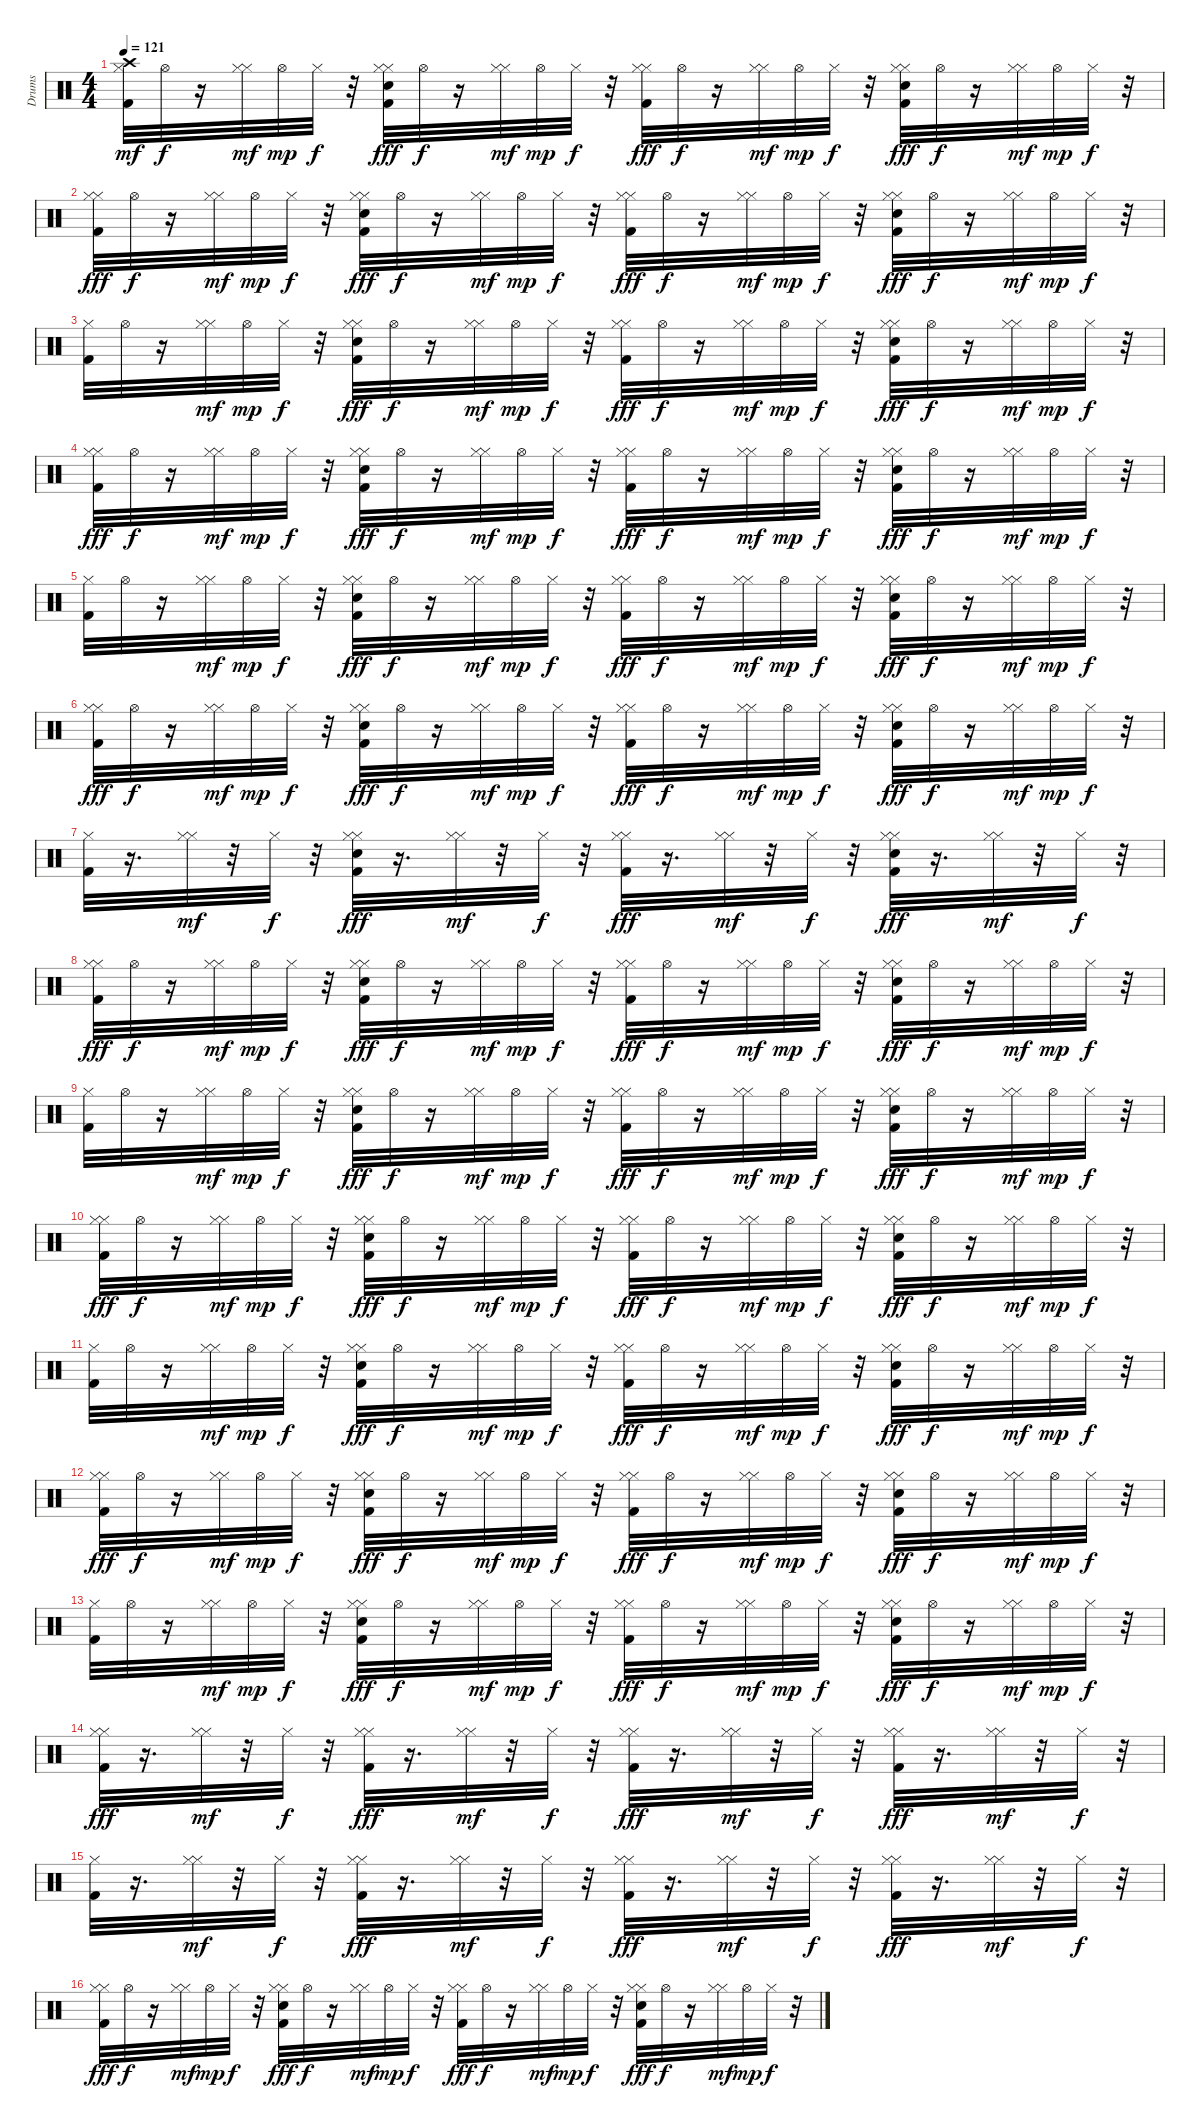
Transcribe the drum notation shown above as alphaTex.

\track ("Drums" "Drums") {instrument percussion}
\staff {score}
\articulation defaults
\ts (4 4)
\tempo 121
\clef neutral
\ks c
("Kick (hit) 2" "Hi-Hat (closed)" "Crash high (hit)").32{dy mf} "Hi-Hat (open)".32{dy f} r.16 ("Hi-Hat (closed)" "Hi-Hat (closed)").32{dy mf} "Hi-Hat (open)".32{dy mp} "Hi-Hat (closed)".32{dy f} r.32 ("Kick (hit) 2" "Hi-Hat (closed)" "Snare (hit) 2" "Hi-Hat (closed)").32{dy fff} "Hi-Hat (open)".32{dy f} r.16 ("Hi-Hat (closed)" "Hi-Hat (closed)").32{dy mf} "Hi-Hat (open)".32{dy mp} "Hi-Hat (closed)".32{dy f} r.32 ("Hi-Hat (closed)" "Kick (hit) 2" "Hi-Hat (closed)").32{dy fff} "Hi-Hat (open)".32{dy f} r.16 ("Hi-Hat (closed)" "Hi-Hat (closed)").32{dy mf} "Hi-Hat (open)".32{dy mp} "Hi-Hat (closed)".32{dy f} r.32 ("Kick (hit) 2" "Hi-Hat (closed)" "Snare (hit) 2" "Hi-Hat (closed)").32{dy fff} "Hi-Hat (open)".32{dy f} r.16 ("Hi-Hat (closed)" "Hi-Hat (closed)").32{dy mf} "Hi-Hat (open)".32{dy mp} "Hi-Hat (closed)".32{dy f} r.32 |
("Hi-Hat (closed)" "Kick (hit) 2" "Hi-Hat (closed)").32{dy fff} "Hi-Hat (open)".32{dy f} r.16 ("Hi-Hat (closed)" "Hi-Hat (closed)").32{dy mf} "Hi-Hat (open)".32{dy mp} "Hi-Hat (closed)".32{dy f} r.32 ("Kick (hit) 2" "Hi-Hat (closed)" "Snare (hit) 2" "Hi-Hat (closed)").32{dy fff} "Hi-Hat (open)".32{dy f} r.16 ("Hi-Hat (closed)" "Hi-Hat (closed)").32{dy mf} "Hi-Hat (open)".32{dy mp} "Hi-Hat (closed)".32{dy f} r.32 ("Hi-Hat (closed)" "Kick (hit) 2" "Hi-Hat (closed)").32{dy fff} "Hi-Hat (open)".32{dy f} r.16 ("Hi-Hat (closed)" "Hi-Hat (closed)").32{dy mf} "Hi-Hat (open)".32{dy mp} "Hi-Hat (closed)".32{dy f} r.32 ("Kick (hit) 2" "Hi-Hat (closed)" "Snare (hit) 2" "Hi-Hat (closed)").32{dy fff} "Hi-Hat (open)".32{dy f} r.16 ("Hi-Hat (closed)" "Hi-Hat (closed)").32{dy mf} "Hi-Hat (open)".32{dy mp} "Hi-Hat (closed)".32{dy f} r.32 |
("Kick (hit) 2" "Hi-Hat (closed)").32 "Hi-Hat (open)".32 r.16 ("Hi-Hat (closed)" "Hi-Hat (closed)").32{dy mf} "Hi-Hat (open)".32{dy mp} "Hi-Hat (closed)".32{dy f} r.32 ("Kick (hit) 2" "Hi-Hat (closed)" "Snare (hit) 2" "Hi-Hat (closed)").32{dy fff} "Hi-Hat (open)".32{dy f} r.16 ("Hi-Hat (closed)" "Hi-Hat (closed)").32{dy mf} "Hi-Hat (open)".32{dy mp} "Hi-Hat (closed)".32{dy f} r.32 ("Hi-Hat (closed)" "Kick (hit) 2" "Hi-Hat (closed)").32{dy fff} "Hi-Hat (open)".32{dy f} r.16 ("Hi-Hat (closed)" "Hi-Hat (closed)").32{dy mf} "Hi-Hat (open)".32{dy mp} "Hi-Hat (closed)".32{dy f} r.32 ("Kick (hit) 2" "Hi-Hat (closed)" "Snare (hit) 2" "Hi-Hat (closed)").32{dy fff} "Hi-Hat (open)".32{dy f} r.16 ("Hi-Hat (closed)" "Hi-Hat (closed)").32{dy mf} "Hi-Hat (open)".32{dy mp} "Hi-Hat (closed)".32{dy f} r.32 |
("Hi-Hat (closed)" "Kick (hit) 2" "Hi-Hat (closed)").32{dy fff} "Hi-Hat (open)".32{dy f} r.16 ("Hi-Hat (closed)" "Hi-Hat (closed)").32{dy mf} "Hi-Hat (open)".32{dy mp} "Hi-Hat (closed)".32{dy f} r.32 ("Kick (hit) 2" "Hi-Hat (closed)" "Snare (hit) 2" "Hi-Hat (closed)").32{dy fff} "Hi-Hat (open)".32{dy f} r.16 ("Hi-Hat (closed)" "Hi-Hat (closed)").32{dy mf} "Hi-Hat (open)".32{dy mp} "Hi-Hat (closed)".32{dy f} r.32 ("Hi-Hat (closed)" "Kick (hit) 2" "Hi-Hat (closed)").32{dy fff} "Hi-Hat (open)".32{dy f} r.16 ("Hi-Hat (closed)" "Hi-Hat (closed)").32{dy mf} "Hi-Hat (open)".32{dy mp} "Hi-Hat (closed)".32{dy f} r.32 ("Kick (hit) 2" "Hi-Hat (closed)" "Snare (hit) 2" "Hi-Hat (closed)").32{dy fff} "Hi-Hat (open)".32{dy f} r.16 ("Hi-Hat (closed)" "Hi-Hat (closed)").32{dy mf} "Hi-Hat (open)".32{dy mp} "Hi-Hat (closed)".32{dy f} r.32 |
("Kick (hit) 2" "Hi-Hat (closed)").32 "Hi-Hat (open)".32 r.16 ("Hi-Hat (closed)" "Hi-Hat (closed)").32{dy mf} "Hi-Hat (open)".32{dy mp} "Hi-Hat (closed)".32{dy f} r.32 ("Kick (hit) 2" "Hi-Hat (closed)" "Snare (hit) 2" "Hi-Hat (closed)").32{dy fff} "Hi-Hat (open)".32{dy f} r.16 ("Hi-Hat (closed)" "Hi-Hat (closed)").32{dy mf} "Hi-Hat (open)".32{dy mp} "Hi-Hat (closed)".32{dy f} r.32 ("Hi-Hat (closed)" "Kick (hit) 2" "Hi-Hat (closed)").32{dy fff} "Hi-Hat (open)".32{dy f} r.16 ("Hi-Hat (closed)" "Hi-Hat (closed)").32{dy mf} "Hi-Hat (open)".32{dy mp} "Hi-Hat (closed)".32{dy f} r.32 ("Kick (hit) 2" "Hi-Hat (closed)" "Snare (hit) 2" "Hi-Hat (closed)").32{dy fff} "Hi-Hat (open)".32{dy f} r.16 ("Hi-Hat (closed)" "Hi-Hat (closed)").32{dy mf} "Hi-Hat (open)".32{dy mp} "Hi-Hat (closed)".32{dy f} r.32 |
("Hi-Hat (closed)" "Kick (hit) 2" "Hi-Hat (closed)").32{dy fff} "Hi-Hat (open)".32{dy f} r.16 ("Hi-Hat (closed)" "Hi-Hat (closed)").32{dy mf} "Hi-Hat (open)".32{dy mp} "Hi-Hat (closed)".32{dy f} r.32 ("Kick (hit) 2" "Hi-Hat (closed)" "Snare (hit) 2" "Hi-Hat (closed)").32{dy fff} "Hi-Hat (open)".32{dy f} r.16 ("Hi-Hat (closed)" "Hi-Hat (closed)").32{dy mf} "Hi-Hat (open)".32{dy mp} "Hi-Hat (closed)".32{dy f} r.32 ("Hi-Hat (closed)" "Kick (hit) 2" "Hi-Hat (closed)").32{dy fff} "Hi-Hat (open)".32{dy f} r.16 ("Hi-Hat (closed)" "Hi-Hat (closed)").32{dy mf} "Hi-Hat (open)".32{dy mp} "Hi-Hat (closed)".32{dy f} r.32 ("Kick (hit) 2" "Hi-Hat (closed)" "Snare (hit) 2" "Hi-Hat (closed)").32{dy fff} "Hi-Hat (open)".32{dy f} r.16 ("Hi-Hat (closed)" "Hi-Hat (closed)").32{dy mf} "Hi-Hat (open)".32{dy mp} "Hi-Hat (closed)".32{dy f} r.32 |
("Kick (hit) 2" "Hi-Hat (closed)").32 r.16{d} ("Hi-Hat (closed)" "Hi-Hat (closed)").32{dy mf} r.32 "Hi-Hat (closed)".32{dy f} r.32 ("Kick (hit) 2" "Hi-Hat (closed)" "Snare (hit) 2" "Hi-Hat (closed)").32{dy fff} r.16{d} ("Hi-Hat (closed)" "Hi-Hat (closed)").32{dy mf} r.32 "Hi-Hat (closed)".32{dy f} r.32 ("Hi-Hat (closed)" "Kick (hit) 2" "Hi-Hat (closed)").32{dy fff} r.16{d} ("Hi-Hat (closed)" "Hi-Hat (closed)").32{dy mf} r.32 "Hi-Hat (closed)".32{dy f} r.32 ("Kick (hit) 2" "Hi-Hat (closed)" "Snare (hit) 2" "Hi-Hat (closed)").32{dy fff} r.16{d} ("Hi-Hat (closed)" "Hi-Hat (closed)").32{dy mf} r.32 "Hi-Hat (closed)".32{dy f} r.32 |
("Hi-Hat (closed)" "Kick (hit) 2" "Hi-Hat (closed)").32{dy fff} "Hi-Hat (open)".32{dy f} r.16 ("Hi-Hat (closed)" "Hi-Hat (closed)").32{dy mf} "Hi-Hat (open)".32{dy mp} "Hi-Hat (closed)".32{dy f} r.32 ("Kick (hit) 2" "Hi-Hat (closed)" "Snare (hit) 2" "Hi-Hat (closed)").32{dy fff} "Hi-Hat (open)".32{dy f} r.16 ("Hi-Hat (closed)" "Hi-Hat (closed)").32{dy mf} "Hi-Hat (open)".32{dy mp} "Hi-Hat (closed)".32{dy f} r.32 ("Hi-Hat (closed)" "Kick (hit) 2" "Hi-Hat (closed)").32{dy fff} "Hi-Hat (open)".32{dy f} r.16 ("Hi-Hat (closed)" "Hi-Hat (closed)").32{dy mf} "Hi-Hat (open)".32{dy mp} "Hi-Hat (closed)".32{dy f} r.32 ("Kick (hit) 2" "Hi-Hat (closed)" "Snare (hit) 2" "Hi-Hat (closed)").32{dy fff} "Hi-Hat (open)".32{dy f} r.16 ("Hi-Hat (closed)" "Hi-Hat (closed)").32{dy mf} "Hi-Hat (open)".32{dy mp} "Hi-Hat (closed)".32{dy f} r.32 |
("Kick (hit) 2" "Hi-Hat (closed)").32 "Hi-Hat (open)".32 r.16 ("Hi-Hat (closed)" "Hi-Hat (closed)").32{dy mf} "Hi-Hat (open)".32{dy mp} "Hi-Hat (closed)".32{dy f} r.32 ("Kick (hit) 2" "Hi-Hat (closed)" "Snare (hit) 2" "Hi-Hat (closed)").32{dy fff} "Hi-Hat (open)".32{dy f} r.16 ("Hi-Hat (closed)" "Hi-Hat (closed)").32{dy mf} "Hi-Hat (open)".32{dy mp} "Hi-Hat (closed)".32{dy f} r.32 ("Hi-Hat (closed)" "Kick (hit) 2" "Hi-Hat (closed)").32{dy fff} "Hi-Hat (open)".32{dy f} r.16 ("Hi-Hat (closed)" "Hi-Hat (closed)").32{dy mf} "Hi-Hat (open)".32{dy mp} "Hi-Hat (closed)".32{dy f} r.32 ("Kick (hit) 2" "Hi-Hat (closed)" "Snare (hit) 2" "Hi-Hat (closed)").32{dy fff} "Hi-Hat (open)".32{dy f} r.16 ("Hi-Hat (closed)" "Hi-Hat (closed)").32{dy mf} "Hi-Hat (open)".32{dy mp} "Hi-Hat (closed)".32{dy f} r.32 |
("Hi-Hat (closed)" "Kick (hit) 2" "Hi-Hat (closed)").32{dy fff} "Hi-Hat (open)".32{dy f} r.16 ("Hi-Hat (closed)" "Hi-Hat (closed)").32{dy mf} "Hi-Hat (open)".32{dy mp} "Hi-Hat (closed)".32{dy f} r.32 ("Kick (hit) 2" "Hi-Hat (closed)" "Snare (hit) 2" "Hi-Hat (closed)").32{dy fff} "Hi-Hat (open)".32{dy f} r.16 ("Hi-Hat (closed)" "Hi-Hat (closed)").32{dy mf} "Hi-Hat (open)".32{dy mp} "Hi-Hat (closed)".32{dy f} r.32 ("Hi-Hat (closed)" "Kick (hit) 2" "Hi-Hat (closed)").32{dy fff} "Hi-Hat (open)".32{dy f} r.16 ("Hi-Hat (closed)" "Hi-Hat (closed)").32{dy mf} "Hi-Hat (open)".32{dy mp} "Hi-Hat (closed)".32{dy f} r.32 ("Kick (hit) 2" "Hi-Hat (closed)" "Snare (hit) 2" "Hi-Hat (closed)").32{dy fff} "Hi-Hat (open)".32{dy f} r.16 ("Hi-Hat (closed)" "Hi-Hat (closed)").32{dy mf} "Hi-Hat (open)".32{dy mp} "Hi-Hat (closed)".32{dy f} r.32 |
("Kick (hit) 2" "Hi-Hat (closed)").32 "Hi-Hat (open)".32 r.16 ("Hi-Hat (closed)" "Hi-Hat (closed)").32{dy mf} "Hi-Hat (open)".32{dy mp} "Hi-Hat (closed)".32{dy f} r.32 ("Kick (hit) 2" "Hi-Hat (closed)" "Snare (hit) 2" "Hi-Hat (closed)").32{dy fff} "Hi-Hat (open)".32{dy f} r.16 ("Hi-Hat (closed)" "Hi-Hat (closed)").32{dy mf} "Hi-Hat (open)".32{dy mp} "Hi-Hat (closed)".32{dy f} r.32 ("Hi-Hat (closed)" "Kick (hit) 2" "Hi-Hat (closed)").32{dy fff} "Hi-Hat (open)".32{dy f} r.16 ("Hi-Hat (closed)" "Hi-Hat (closed)").32{dy mf} "Hi-Hat (open)".32{dy mp} "Hi-Hat (closed)".32{dy f} r.32 ("Kick (hit) 2" "Hi-Hat (closed)" "Snare (hit) 2" "Hi-Hat (closed)").32{dy fff} "Hi-Hat (open)".32{dy f} r.16 ("Hi-Hat (closed)" "Hi-Hat (closed)").32{dy mf} "Hi-Hat (open)".32{dy mp} "Hi-Hat (closed)".32{dy f} r.32 |
("Hi-Hat (closed)" "Kick (hit) 2" "Hi-Hat (closed)").32{dy fff} "Hi-Hat (open)".32{dy f} r.16 ("Hi-Hat (closed)" "Hi-Hat (closed)").32{dy mf} "Hi-Hat (open)".32{dy mp} "Hi-Hat (closed)".32{dy f} r.32 ("Kick (hit) 2" "Hi-Hat (closed)" "Snare (hit) 2" "Hi-Hat (closed)").32{dy fff} "Hi-Hat (open)".32{dy f} r.16 ("Hi-Hat (closed)" "Hi-Hat (closed)").32{dy mf} "Hi-Hat (open)".32{dy mp} "Hi-Hat (closed)".32{dy f} r.32 ("Hi-Hat (closed)" "Kick (hit) 2" "Hi-Hat (closed)").32{dy fff} "Hi-Hat (open)".32{dy f} r.16 ("Hi-Hat (closed)" "Hi-Hat (closed)").32{dy mf} "Hi-Hat (open)".32{dy mp} "Hi-Hat (closed)".32{dy f} r.32 ("Kick (hit) 2" "Hi-Hat (closed)" "Snare (hit) 2" "Hi-Hat (closed)").32{dy fff} "Hi-Hat (open)".32{dy f} r.16 ("Hi-Hat (closed)" "Hi-Hat (closed)").32{dy mf} "Hi-Hat (open)".32{dy mp} "Hi-Hat (closed)".32{dy f} r.32 |
("Kick (hit) 2" "Hi-Hat (closed)").32 "Hi-Hat (open)".32 r.16 ("Hi-Hat (closed)" "Hi-Hat (closed)").32{dy mf} "Hi-Hat (open)".32{dy mp} "Hi-Hat (closed)".32{dy f} r.32 ("Kick (hit) 2" "Hi-Hat (closed)" "Snare (hit) 2" "Hi-Hat (closed)").32{dy fff} "Hi-Hat (open)".32{dy f} r.16 ("Hi-Hat (closed)" "Hi-Hat (closed)").32{dy mf} "Hi-Hat (open)".32{dy mp} "Hi-Hat (closed)".32{dy f} r.32 ("Hi-Hat (closed)" "Kick (hit) 2" "Hi-Hat (closed)").32{dy fff} "Hi-Hat (open)".32{dy f} r.16 ("Hi-Hat (closed)" "Hi-Hat (closed)").32{dy mf} "Hi-Hat (open)".32{dy mp} "Hi-Hat (closed)".32{dy f} r.32 ("Kick (hit) 2" "Hi-Hat (closed)" "Snare (hit) 2" "Hi-Hat (closed)").32{dy fff} "Hi-Hat (open)".32{dy f} r.16 ("Hi-Hat (closed)" "Hi-Hat (closed)").32{dy mf} "Hi-Hat (open)".32{dy mp} "Hi-Hat (closed)".32{dy f} r.32 |
("Hi-Hat (closed)" "Kick (hit) 2" "Hi-Hat (closed)").32{dy fff} r.16{d} ("Hi-Hat (closed)" "Hi-Hat (closed)").32{dy mf} r.32 "Hi-Hat (closed)".32{dy f} r.32 ("Kick (hit) 2" "Hi-Hat (closed)" "Hi-Hat (closed)").32{dy fff} r.16{d} ("Hi-Hat (closed)" "Hi-Hat (closed)").32{dy mf} r.32 "Hi-Hat (closed)".32{dy f} r.32 ("Hi-Hat (closed)" "Kick (hit) 2" "Hi-Hat (closed)").32{dy fff} r.16{d} ("Hi-Hat (closed)" "Hi-Hat (closed)").32{dy mf} r.32 "Hi-Hat (closed)".32{dy f} r.32 ("Kick (hit) 2" "Hi-Hat (closed)" "Hi-Hat (closed)").32{dy fff} r.16{d} ("Hi-Hat (closed)" "Hi-Hat (closed)").32{dy mf} r.32 "Hi-Hat (closed)".32{dy f} r.32 |
("Kick (hit) 2" "Hi-Hat (closed)").32 r.16{d} ("Hi-Hat (closed)" "Hi-Hat (closed)").32{dy mf} r.32 "Hi-Hat (closed)".32{dy f} r.32 ("Kick (hit) 2" "Hi-Hat (closed)" "Hi-Hat (closed)").32{dy fff} r.16{d} ("Hi-Hat (closed)" "Hi-Hat (closed)").32{dy mf} r.32 "Hi-Hat (closed)".32{dy f} r.32 ("Hi-Hat (closed)" "Kick (hit) 2" "Hi-Hat (closed)").32{dy fff} r.16{d} ("Hi-Hat (closed)" "Hi-Hat (closed)").32{dy mf} r.32 "Hi-Hat (closed)".32{dy f} r.32 ("Kick (hit) 2" "Hi-Hat (closed)" "Hi-Hat (closed)").32{dy fff} r.16{d} ("Hi-Hat (closed)" "Hi-Hat (closed)").32{dy mf} r.32 "Hi-Hat (closed)".32{dy f} r.32 |
("Hi-Hat (closed)" "Kick (hit) 2" "Hi-Hat (closed)").32{dy fff} "Hi-Hat (open)".32{dy f} r.16 ("Hi-Hat (closed)" "Hi-Hat (closed)").32{dy mf} "Hi-Hat (open)".32{dy mp} "Hi-Hat (closed)".32{dy f} r.32 ("Kick (hit) 2" "Hi-Hat (closed)" "Snare (hit) 2" "Hi-Hat (closed)").32{dy fff} "Hi-Hat (open)".32{dy f} r.16 ("Hi-Hat (closed)" "Hi-Hat (closed)").32{dy mf} "Hi-Hat (open)".32{dy mp} "Hi-Hat (closed)".32{dy f} r.32 ("Hi-Hat (closed)" "Kick (hit) 2" "Hi-Hat (closed)").32{dy fff} "Hi-Hat (open)".32{dy f} r.16 ("Hi-Hat (closed)" "Hi-Hat (closed)").32{dy mf} "Hi-Hat (open)".32{dy mp} "Hi-Hat (closed)".32{dy f} r.32 ("Kick (hit) 2" "Hi-Hat (closed)" "Snare (hit) 2" "Hi-Hat (closed)").32{dy fff} "Hi-Hat (open)".32{dy f} r.16 ("Hi-Hat (closed)" "Hi-Hat (closed)").32{dy mf} "Hi-Hat (open)".32{dy mp} "Hi-Hat (closed)".32{dy f} r.32
